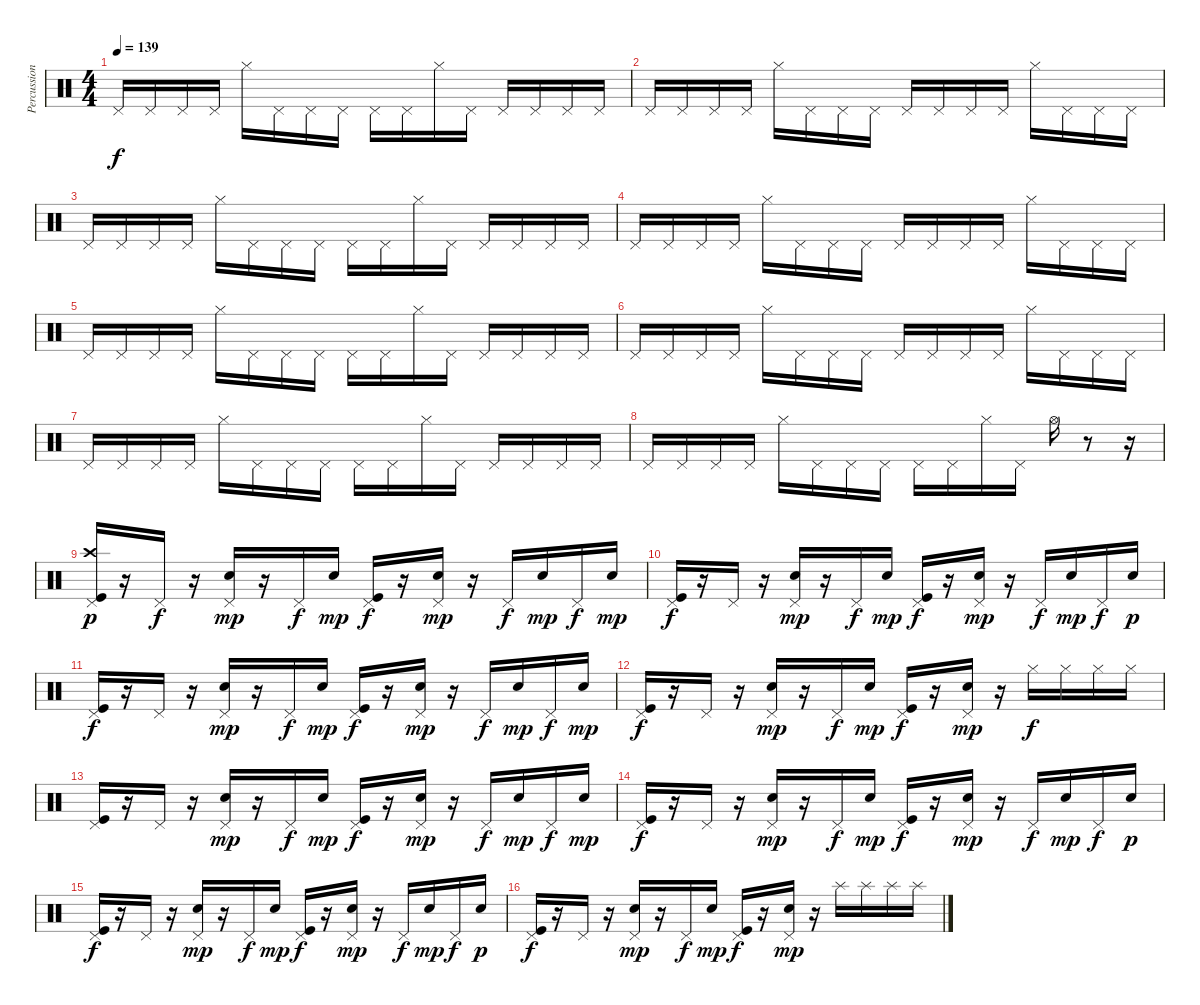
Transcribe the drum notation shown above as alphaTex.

\track ("Percussion" "Percussion") {instrument percussion}
\staff {score}
\articulation defaults
\ts (4 4)
\tempo 139
\clef neutral
\ks c "Pedal Hi-Hat (hit)".16{dy f} "Pedal Hi-Hat (hit)".16 "Pedal Hi-Hat (hit)".16 "Pedal Hi-Hat (hit)".16 "Hi-Hat (closed)".16 "Pedal Hi-Hat (hit)".16 "Pedal Hi-Hat (hit)".16 "Pedal Hi-Hat (hit)".16 "Pedal Hi-Hat (hit)".16 "Pedal Hi-Hat (hit)".16 "Hi-Hat (closed)".16 "Pedal Hi-Hat (hit)".16 "Pedal Hi-Hat (hit)".16 "Pedal Hi-Hat (hit)".16 "Pedal Hi-Hat (hit)".16 "Pedal Hi-Hat (hit)".16
|
"Pedal Hi-Hat (hit)".16 "Pedal Hi-Hat (hit)".16 "Pedal Hi-Hat (hit)".16 "Pedal Hi-Hat (hit)".16 "Hi-Hat (closed)".16 "Pedal Hi-Hat (hit)".16 "Pedal Hi-Hat (hit)".16 "Pedal Hi-Hat (hit)".16 "Pedal Hi-Hat (hit)".16 "Pedal Hi-Hat (hit)".16 "Pedal Hi-Hat (hit)".16 "Pedal Hi-Hat (hit)".16 "Hi-Hat (closed)".16 "Pedal Hi-Hat (hit)".16 "Pedal Hi-Hat (hit)".16 "Pedal Hi-Hat (hit)".16 |
"Pedal Hi-Hat (hit)".16 "Pedal Hi-Hat (hit)".16 "Pedal Hi-Hat (hit)".16 "Pedal Hi-Hat (hit)".16 "Hi-Hat (closed)".16 "Pedal Hi-Hat (hit)".16 "Pedal Hi-Hat (hit)".16 "Pedal Hi-Hat (hit)".16 "Pedal Hi-Hat (hit)".16 "Pedal Hi-Hat (hit)".16 "Hi-Hat (closed)".16 "Pedal Hi-Hat (hit)".16 "Pedal Hi-Hat (hit)".16 "Pedal Hi-Hat (hit)".16 "Pedal Hi-Hat (hit)".16 "Pedal Hi-Hat (hit)".16 |
"Pedal Hi-Hat (hit)".16 "Pedal Hi-Hat (hit)".16 "Pedal Hi-Hat (hit)".16 "Pedal Hi-Hat (hit)".16 "Hi-Hat (closed)".16 "Pedal Hi-Hat (hit)".16 "Pedal Hi-Hat (hit)".16 "Pedal Hi-Hat (hit)".16 "Pedal Hi-Hat (hit)".16 "Pedal Hi-Hat (hit)".16 "Pedal Hi-Hat (hit)".16 "Pedal Hi-Hat (hit)".16 "Hi-Hat (closed)".16 "Pedal Hi-Hat (hit)".16 "Pedal Hi-Hat (hit)".16 "Pedal Hi-Hat (hit)".16 |
"Pedal Hi-Hat (hit)".16 "Pedal Hi-Hat (hit)".16 "Pedal Hi-Hat (hit)".16 "Pedal Hi-Hat (hit)".16 "Hi-Hat (closed)".16 "Pedal Hi-Hat (hit)".16 "Pedal Hi-Hat (hit)".16 "Pedal Hi-Hat (hit)".16 "Pedal Hi-Hat (hit)".16 "Pedal Hi-Hat (hit)".16 "Hi-Hat (closed)".16 "Pedal Hi-Hat (hit)".16 "Pedal Hi-Hat (hit)".16 "Pedal Hi-Hat (hit)".16 "Pedal Hi-Hat (hit)".16 "Pedal Hi-Hat (hit)".16 |
"Pedal Hi-Hat (hit)".16 "Pedal Hi-Hat (hit)".16 "Pedal Hi-Hat (hit)".16 "Pedal Hi-Hat (hit)".16 "Hi-Hat (closed)".16 "Pedal Hi-Hat (hit)".16 "Pedal Hi-Hat (hit)".16 "Pedal Hi-Hat (hit)".16 "Pedal Hi-Hat (hit)".16 "Pedal Hi-Hat (hit)".16 "Pedal Hi-Hat (hit)".16 "Pedal Hi-Hat (hit)".16 "Hi-Hat (closed)".16 "Pedal Hi-Hat (hit)".16 "Pedal Hi-Hat (hit)".16 "Pedal Hi-Hat (hit)".16 |
"Pedal Hi-Hat (hit)".16 "Pedal Hi-Hat (hit)".16 "Pedal Hi-Hat (hit)".16 "Pedal Hi-Hat (hit)".16 "Hi-Hat (closed)".16 "Pedal Hi-Hat (hit)".16 "Pedal Hi-Hat (hit)".16 "Pedal Hi-Hat (hit)".16 "Pedal Hi-Hat (hit)".16 "Pedal Hi-Hat (hit)".16 "Hi-Hat (closed)".16 "Pedal Hi-Hat (hit)".16 "Pedal Hi-Hat (hit)".16 "Pedal Hi-Hat (hit)".16 "Pedal Hi-Hat (hit)".16 "Pedal Hi-Hat (hit)".16 |
"Pedal Hi-Hat (hit)".16 "Pedal Hi-Hat (hit)".16 "Pedal Hi-Hat (hit)".16 "Pedal Hi-Hat (hit)".16 "Hi-Hat (closed)".16 "Pedal Hi-Hat (hit)".16 "Pedal Hi-Hat (hit)".16 "Pedal Hi-Hat (hit)".16 "Pedal Hi-Hat (hit)".16 "Pedal Hi-Hat (hit)".16 "Hi-Hat (closed)".16 "Pedal Hi-Hat (hit)".16 "Hi-Hat (open)".16 r.8 r.16 |
("Pedal Hi-Hat (hit)" "Crash high (hit)" "Kick (hit)").16{dy p} r.16 "Pedal Hi-Hat (hit)".16{dy f} r.16 ("Pedal Hi-Hat (hit)" "Electric Snare (hit)").16{dy mp} r.16 "Pedal Hi-Hat (hit)".16{dy f} "Electric Snare (hit)".16{dy mp} ("Pedal Hi-Hat (hit)" "Kick (hit)").16{dy f} r.16 ("Pedal Hi-Hat (hit)" "Electric Snare (hit)").16{dy mp} r.16 "Pedal Hi-Hat (hit)".16{dy f} "Electric Snare (hit)".16{dy mp} "Pedal Hi-Hat (hit)".16{dy f} "Electric Snare (hit)".16{dy mp} |
("Pedal Hi-Hat (hit)" "Kick (hit)").16{dy f} r.16 "Pedal Hi-Hat (hit)".16 r.16 ("Pedal Hi-Hat (hit)" "Electric Snare (hit)").16{dy mp} r.16 "Pedal Hi-Hat (hit)".16{dy f} "Electric Snare (hit)".16{dy mp} ("Pedal Hi-Hat (hit)" "Kick (hit)").16{dy f} r.16 ("Pedal Hi-Hat (hit)" "Electric Snare (hit)").16{dy mp} r.16 "Pedal Hi-Hat (hit)".16{dy f} "Electric Snare (hit)".16{dy mp} "Pedal Hi-Hat (hit)".16{dy f} "Electric Snare (hit)".16{dy p} |
("Pedal Hi-Hat (hit)" "Kick (hit)").16{dy f} r.16 "Pedal Hi-Hat (hit)".16 r.16 ("Pedal Hi-Hat (hit)" "Electric Snare (hit)").16{dy mp} r.16 "Pedal Hi-Hat (hit)".16{dy f} "Electric Snare (hit)".16{dy mp} ("Pedal Hi-Hat (hit)" "Kick (hit)").16{dy f} r.16 ("Pedal Hi-Hat (hit)" "Electric Snare (hit)").16{dy mp} r.16 "Pedal Hi-Hat (hit)".16{dy f} "Electric Snare (hit)".16{dy mp} "Pedal Hi-Hat (hit)".16{dy f} "Electric Snare (hit)".16{dy mp} |
("Pedal Hi-Hat (hit)" "Kick (hit)").16{dy f} r.16 "Pedal Hi-Hat (hit)".16 r.16 ("Pedal Hi-Hat (hit)" "Electric Snare (hit)").16{dy mp} r.16 "Pedal Hi-Hat (hit)".16{dy f} "Electric Snare (hit)".16{dy mp} ("Pedal Hi-Hat (hit)" "Kick (hit)").16{dy f} r.16 ("Pedal Hi-Hat (hit)" "Electric Snare (hit)").16{dy mp} r.16 "Hi-Hat (closed)".16{dy f} "Hi-Hat (closed)".16 "Hi-Hat (closed)".16 "Hi-Hat (closed)".16 |
("Pedal Hi-Hat (hit)" "Kick (hit)").16 r.16 "Pedal Hi-Hat (hit)".16 r.16 ("Pedal Hi-Hat (hit)" "Electric Snare (hit)").16{dy mp} r.16 "Pedal Hi-Hat (hit)".16{dy f} "Electric Snare (hit)".16{dy mp} ("Pedal Hi-Hat (hit)" "Kick (hit)").16{dy f} r.16 ("Pedal Hi-Hat (hit)" "Electric Snare (hit)").16{dy mp} r.16 "Pedal Hi-Hat (hit)".16{dy f} "Electric Snare (hit)".16{dy mp} "Pedal Hi-Hat (hit)".16{dy f} "Electric Snare (hit)".16{dy mp} |
("Pedal Hi-Hat (hit)" "Kick (hit)").16{dy f} r.16 "Pedal Hi-Hat (hit)".16 r.16 ("Pedal Hi-Hat (hit)" "Electric Snare (hit)").16{dy mp} r.16 "Pedal Hi-Hat (hit)".16{dy f} "Electric Snare (hit)".16{dy mp} ("Pedal Hi-Hat (hit)" "Kick (hit)").16{dy f} r.16 ("Pedal Hi-Hat (hit)" "Electric Snare (hit)").16{dy mp} r.16 "Pedal Hi-Hat (hit)".16{dy f} "Electric Snare (hit)".16{dy mp} "Pedal Hi-Hat (hit)".16{dy f} "Electric Snare (hit)".16{dy p} |
("Pedal Hi-Hat (hit)" "Kick (hit)").16{dy f} r.16 "Pedal Hi-Hat (hit)".16 r.16 ("Pedal Hi-Hat (hit)" "Electric Snare (hit)").16{dy mp} r.16 "Pedal Hi-Hat (hit)".16{dy f} "Electric Snare (hit)".16{dy mp} ("Pedal Hi-Hat (hit)" "Kick (hit)").16{dy f} r.16 ("Pedal Hi-Hat (hit)" "Electric Snare (hit)").16{dy mp} r.16 "Pedal Hi-Hat (hit)".16{dy f} "Electric Snare (hit)".16{dy mp} "Pedal Hi-Hat (hit)".16{dy f} "Electric Snare (hit)".16{dy p} |
("Pedal Hi-Hat (hit)" "Kick (hit)").16{dy f} r.16 "Pedal Hi-Hat (hit)".16 r.16 ("Pedal Hi-Hat (hit)" "Electric Snare (hit)").16{dy mp} r.16 "Pedal Hi-Hat (hit)".16{dy f} "Electric Snare (hit)".16{dy mp} ("Pedal Hi-Hat (hit)" "Kick (hit)").16{dy f} r.16 ("Pedal Hi-Hat (hit)" "Electric Snare (hit)").16{dy mp} r.16 "Splash (hit)".16 "Splash (hit)".16 "Splash (hit)".16 "Splash (hit)".16
